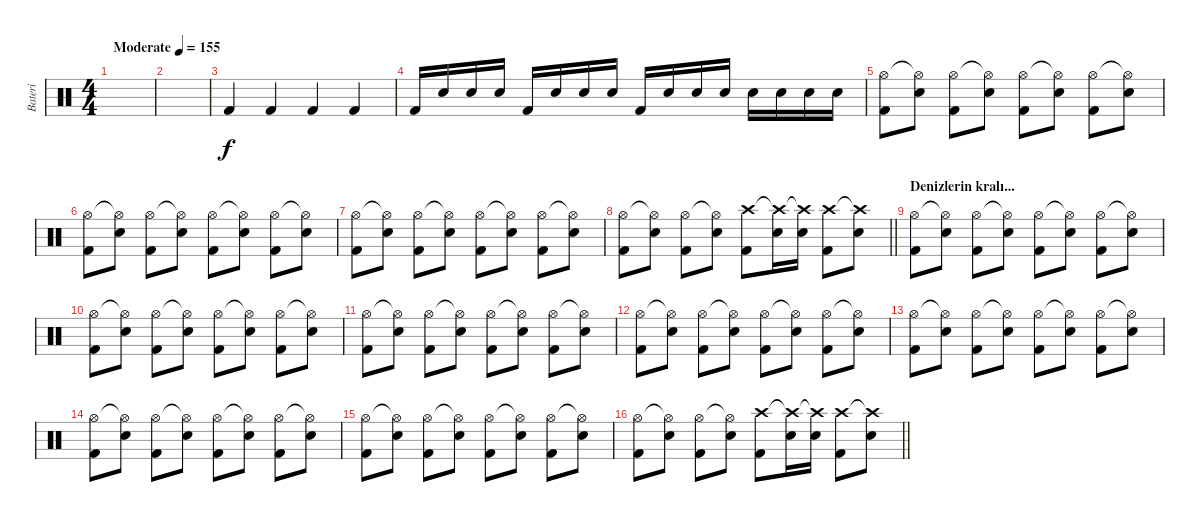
\track ("Bateri" "Bateri") {instrument percussion}
\staff {score}
\articulation defaults
\ts (4 4)
\tempo (155 "Moderate")
\clef neutral
\ks c
|
|
"Kick (hit) 2".4 "Kick (hit) 2".4 "Kick (hit) 2".4 "Kick (hit) 2".4 |
"Kick (hit) 2".16 "Snare (hit) 2".16 "Snare (hit) 2".16 "Snare (hit) 2".16 "Kick (hit) 2".16 "Snare (hit) 2".16 "Snare (hit) 2".16 "Snare (hit) 2".16 "Kick (hit) 2".16 "Snare (hit) 2".16 "Snare (hit) 2".16 "Snare (hit) 2".16 "Snare (hit) 2".16 "Snare (hit) 2".16 "Snare (hit) 2".16 "Snare (hit) 2".16 |
("Hi-Hat (open)" "Kick (hit) 2").8 ("Hi-Hat (open)"{t} "Snare (hit) 2").8 ("Hi-Hat (open)" "Kick (hit) 2").8 ("Hi-Hat (open)"{t} "Snare (hit) 2").8 ("Hi-Hat (open)" "Kick (hit) 2").8 ("Hi-Hat (open)"{t} "Snare (hit) 2").8 ("Hi-Hat (open)" "Kick (hit) 2").8 ("Hi-Hat (open)"{t} "Snare (hit) 2").8 |
("Hi-Hat (open)" "Kick (hit) 2").8 ("Hi-Hat (open)"{t} "Snare (hit) 2").8 ("Hi-Hat (open)" "Kick (hit) 2").8 ("Hi-Hat (open)"{t} "Snare (hit) 2").8 ("Hi-Hat (open)" "Kick (hit) 2").8 ("Hi-Hat (open)"{t} "Snare (hit) 2").8 ("Hi-Hat (open)" "Kick (hit) 2").8 ("Hi-Hat (open)"{t} "Snare (hit) 2").8 |
("Hi-Hat (open)" "Kick (hit) 2").8 ("Hi-Hat (open)"{t} "Snare (hit) 2").8 ("Hi-Hat (open)" "Kick (hit) 2").8 ("Hi-Hat (open)"{t} "Snare (hit) 2").8 ("Hi-Hat (open)" "Kick (hit) 2").8 ("Hi-Hat (open)"{t} "Snare (hit) 2").8 ("Hi-Hat (open)" "Kick (hit) 2").8 ("Hi-Hat (open)"{t} "Snare (hit) 2").8 |
\barLineRight lightlight
("Hi-Hat (open)" "Kick (hit) 2").8 ("Hi-Hat (open)"{t} "Snare (hit) 2").8 ("Hi-Hat (open)" "Kick (hit) 2").8 ("Hi-Hat (open)"{t} "Snare (hit) 2").8 ("Crash high (hit)" "Kick (hit) 2").8 ("Crash high (hit)"{t} "Snare (hit) 2").16 ("Crash high (hit)"{t} "Snare (hit) 2").16 ("Crash high (hit)" "Kick (hit) 2").8 ("Crash high (hit)"{t} "Snare (hit) 2").8 |
\section ("" "Denizlerin kralı...")
("Hi-Hat (open)" "Kick (hit) 2").8 ("Hi-Hat (open)"{t} "Snare (hit) 2").8 ("Hi-Hat (open)" "Kick (hit) 2").8 ("Hi-Hat (open)"{t} "Snare (hit) 2").8 ("Hi-Hat (open)" "Kick (hit) 2").8 ("Hi-Hat (open)"{t} "Snare (hit) 2").8 ("Hi-Hat (open)" "Kick (hit) 2").8 ("Hi-Hat (open)"{t} "Snare (hit) 2").8 |
("Hi-Hat (open)" "Kick (hit) 2").8 ("Hi-Hat (open)"{t} "Snare (hit) 2").8 ("Hi-Hat (open)" "Kick (hit) 2").8 ("Hi-Hat (open)"{t} "Snare (hit) 2").8 ("Hi-Hat (open)" "Kick (hit) 2").8 ("Hi-Hat (open)"{t} "Snare (hit) 2").8 ("Hi-Hat (open)" "Kick (hit) 2").8 ("Hi-Hat (open)"{t} "Snare (hit) 2").8 |
("Hi-Hat (open)" "Kick (hit) 2").8 ("Hi-Hat (open)"{t} "Snare (hit) 2").8 ("Hi-Hat (open)" "Kick (hit) 2").8 ("Hi-Hat (open)"{t} "Snare (hit) 2").8 ("Hi-Hat (open)" "Kick (hit) 2").8 ("Hi-Hat (open)"{t} "Snare (hit) 2").8 ("Hi-Hat (open)" "Kick (hit) 2").8 ("Hi-Hat (open)"{t} "Snare (hit) 2").8 |
("Hi-Hat (open)" "Kick (hit) 2").8 ("Hi-Hat (open)"{t} "Snare (hit) 2").8 ("Hi-Hat (open)" "Kick (hit) 2").8 ("Hi-Hat (open)"{t} "Snare (hit) 2").8 ("Hi-Hat (open)" "Kick (hit) 2").8 ("Hi-Hat (open)"{t} "Snare (hit) 2").8 ("Hi-Hat (open)" "Kick (hit) 2").8 ("Hi-Hat (open)"{t} "Snare (hit) 2").8 |
("Hi-Hat (open)" "Kick (hit) 2").8 ("Hi-Hat (open)"{t} "Snare (hit) 2").8 ("Hi-Hat (open)" "Kick (hit) 2").8 ("Hi-Hat (open)"{t} "Snare (hit) 2").8 ("Hi-Hat (open)" "Kick (hit) 2").8 ("Hi-Hat (open)"{t} "Snare (hit) 2").8 ("Hi-Hat (open)" "Kick (hit) 2").8 ("Hi-Hat (open)"{t} "Snare (hit) 2").8 |
("Hi-Hat (open)" "Kick (hit) 2").8 ("Hi-Hat (open)"{t} "Snare (hit) 2").8 ("Hi-Hat (open)" "Kick (hit) 2").8 ("Hi-Hat (open)"{t} "Snare (hit) 2").8 ("Hi-Hat (open)" "Kick (hit) 2").8 ("Hi-Hat (open)"{t} "Snare (hit) 2").8 ("Hi-Hat (open)" "Kick (hit) 2").8 ("Hi-Hat (open)"{t} "Snare (hit) 2").8 |
("Hi-Hat (open)" "Kick (hit) 2").8 ("Hi-Hat (open)"{t} "Snare (hit) 2").8 ("Hi-Hat (open)" "Kick (hit) 2").8 ("Hi-Hat (open)"{t} "Snare (hit) 2").8 ("Hi-Hat (open)" "Kick (hit) 2").8 ("Hi-Hat (open)"{t} "Snare (hit) 2").8 ("Hi-Hat (open)" "Kick (hit) 2").8 ("Hi-Hat (open)"{t} "Snare (hit) 2").8 |
\barLineRight lightlight
("Hi-Hat (open)" "Kick (hit) 2").8 ("Hi-Hat (open)"{t} "Snare (hit) 2").8 ("Hi-Hat (open)" "Kick (hit) 2").8 ("Hi-Hat (open)"{t} "Snare (hit) 2").8 ("Crash high (hit)" "Kick (hit) 2").8 ("Crash high (hit)"{t} "Snare (hit) 2").16 ("Crash high (hit)"{t} "Snare (hit) 2").16 ("Crash high (hit)" "Kick (hit) 2").8 ("Crash high (hit)"{t} "Snare (hit) 2").8
